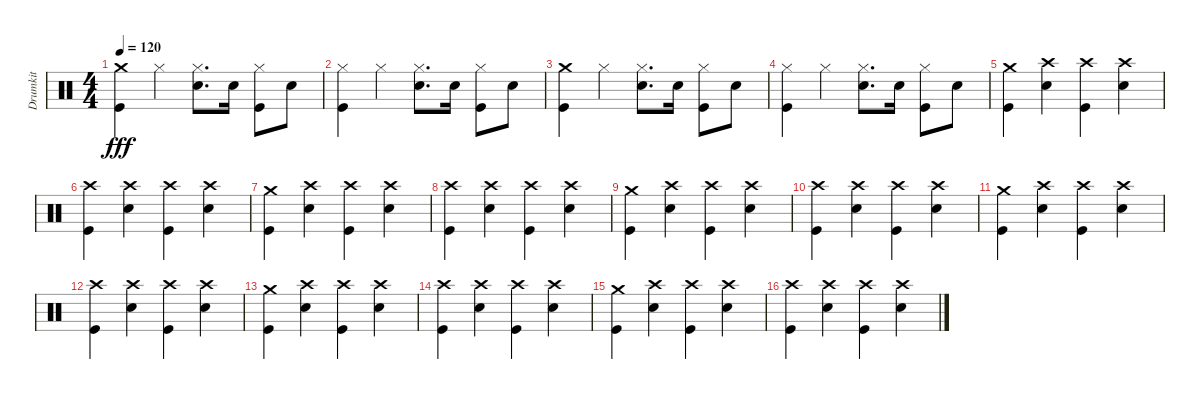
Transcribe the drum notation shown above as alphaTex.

\track ("Drumkit" "Drumkit") {instrument percussion}
\staff {score}
\articulation defaults
\ts (4 4)
\tempo 120
\clef neutral
\ks c
("Kick (hit)" "Crash medium (hit)").4{dy fff} "Hi-Hat (closed)".4 ("Snare (hit) 2" "Hi-Hat (closed)").8{d} "Snare (hit) 2".16 ("Hi-Hat (closed)" "Kick (hit)").8 "Snare (hit) 2".8 |
("Kick (hit)" "Hi-Hat (closed)").4 "Hi-Hat (closed)".4 ("Snare (hit) 2" "Hi-Hat (closed)").8{d} "Snare (hit) 2".16 ("Hi-Hat (closed)" "Kick (hit)").8 "Snare (hit) 2".8 |
("Kick (hit)" "Crash medium (hit)").4 "Hi-Hat (closed)".4 ("Snare (hit) 2" "Hi-Hat (closed)").8{d} "Snare (hit) 2".16 ("Hi-Hat (closed)" "Kick (hit)").8 "Snare (hit) 2".8 |
("Kick (hit)" "Hi-Hat (closed)").4 "Hi-Hat (closed)".4 ("Snare (hit) 2" "Hi-Hat (closed)").8{d} "Snare (hit) 2".16 ("Hi-Hat (closed)" "Kick (hit)").8 "Snare (hit) 2".8 |
("Kick (hit)" "Crash medium (hit)").4 ("Snare (hit) 2" "Crash high (hit)").4 ("Kick (hit)" "Crash high (hit)").4 ("Snare (hit) 2" "Crash high (hit)").4 |
("Kick (hit)" "Crash high (hit)").4 ("Snare (hit) 2" "Crash high (hit)").4 ("Kick (hit)" "Crash high (hit)").4 ("Snare (hit) 2" "Crash high (hit)").4 |
("Kick (hit)" "Crash medium (hit)").4 ("Snare (hit) 2" "Crash high (hit)").4 ("Kick (hit)" "Crash high (hit)").4 ("Snare (hit) 2" "Crash high (hit)").4 |
("Kick (hit)" "Crash high (hit)").4 ("Snare (hit) 2" "Crash high (hit)").4 ("Kick (hit)" "Crash high (hit)").4 ("Snare (hit) 2" "Crash high (hit)").4 |
("Kick (hit)" "Crash medium (hit)").4 ("Snare (hit) 2" "Crash high (hit)").4 ("Kick (hit)" "Crash high (hit)").4 ("Snare (hit) 2" "Crash high (hit)").4 |
("Kick (hit)" "Crash high (hit)").4 ("Snare (hit) 2" "Crash high (hit)").4 ("Kick (hit)" "Crash high (hit)").4 ("Snare (hit) 2" "Crash high (hit)").4 |
("Kick (hit)" "Crash medium (hit)").4 ("Snare (hit) 2" "Crash high (hit)").4 ("Kick (hit)" "Crash high (hit)").4 ("Snare (hit) 2" "Crash high (hit)").4 |
("Kick (hit)" "Crash high (hit)").4 ("Snare (hit) 2" "Crash high (hit)").4 ("Kick (hit)" "Crash high (hit)").4 ("Snare (hit) 2" "Crash high (hit)").4 |
("Kick (hit)" "Crash medium (hit)").4 ("Snare (hit) 2" "Crash high (hit)").4 ("Kick (hit)" "Crash high (hit)").4 ("Snare (hit) 2" "Crash high (hit)").4 |
("Kick (hit)" "Crash high (hit)").4 ("Snare (hit) 2" "Crash high (hit)").4 ("Kick (hit)" "Crash high (hit)").4 ("Snare (hit) 2" "Crash high (hit)").4 |
("Kick (hit)" "Crash medium (hit)").4 ("Snare (hit) 2" "Crash high (hit)").4 ("Kick (hit)" "Crash high (hit)").4 ("Snare (hit) 2" "Crash high (hit)").4 |
("Kick (hit)" "Crash high (hit)").4 ("Snare (hit) 2" "Crash high (hit)").4 ("Kick (hit)" "Crash high (hit)").4 ("Snare (hit) 2" "Crash high (hit)").4
